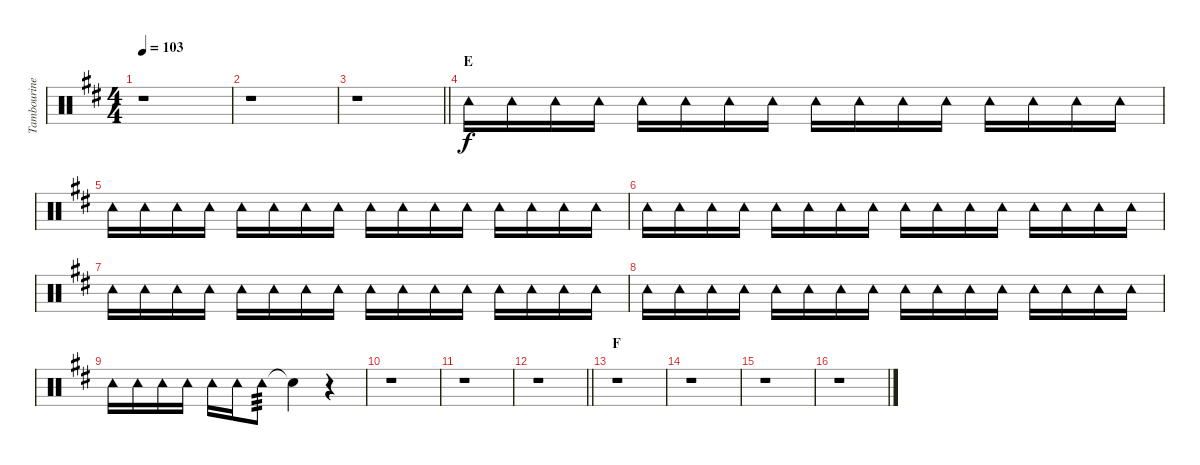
\track ("Tambourine" "Tambourine") {instrument percussion}
\staff {score}
\articulation defaults
\ts (4 4)
\tempo 103
\clef neutral
\ks d
r.1{dy f} |
r.1 |
\barLineRight lightlight
r.1 |
\section ("" "E")
"Tambourine (hit)".16 "Tambourine (hit)".16 "Tambourine (hit)".16 "Tambourine (hit)".16 "Tambourine (hit)".16 "Tambourine (hit)".16 "Tambourine (hit)".16 "Tambourine (hit)".16 "Tambourine (hit)".16 "Tambourine (hit)".16 "Tambourine (hit)".16 "Tambourine (hit)".16 "Tambourine (hit)".16 "Tambourine (hit)".16 "Tambourine (hit)".16 "Tambourine (hit)".16 |
"Tambourine (hit)".16 "Tambourine (hit)".16 "Tambourine (hit)".16 "Tambourine (hit)".16 "Tambourine (hit)".16 "Tambourine (hit)".16 "Tambourine (hit)".16 "Tambourine (hit)".16 "Tambourine (hit)".16 "Tambourine (hit)".16 "Tambourine (hit)".16 "Tambourine (hit)".16 "Tambourine (hit)".16 "Tambourine (hit)".16 "Tambourine (hit)".16 "Tambourine (hit)".16 |
"Tambourine (hit)".16 "Tambourine (hit)".16 "Tambourine (hit)".16 "Tambourine (hit)".16 "Tambourine (hit)".16 "Tambourine (hit)".16 "Tambourine (hit)".16 "Tambourine (hit)".16 "Tambourine (hit)".16 "Tambourine (hit)".16 "Tambourine (hit)".16 "Tambourine (hit)".16 "Tambourine (hit)".16 "Tambourine (hit)".16 "Tambourine (hit)".16 "Tambourine (hit)".16 |
"Tambourine (hit)".16 "Tambourine (hit)".16 "Tambourine (hit)".16 "Tambourine (hit)".16 "Tambourine (hit)".16 "Tambourine (hit)".16 "Tambourine (hit)".16 "Tambourine (hit)".16 "Tambourine (hit)".16 "Tambourine (hit)".16 "Tambourine (hit)".16 "Tambourine (hit)".16 "Tambourine (hit)".16 "Tambourine (hit)".16 "Tambourine (hit)".16 "Tambourine (hit)".16 |
"Tambourine (hit)".16 "Tambourine (hit)".16 "Tambourine (hit)".16 "Tambourine (hit)".16 "Tambourine (hit)".16 "Tambourine (hit)".16 "Tambourine (hit)".16 "Tambourine (hit)".16 "Tambourine (hit)".16 "Tambourine (hit)".16 "Tambourine (hit)".16 "Tambourine (hit)".16 "Tambourine (hit)".16 "Tambourine (hit)".16 "Tambourine (hit)".16 "Tambourine (hit)".16 |
"Tambourine (hit)".16 "Tambourine (hit)".16 "Tambourine (hit)".16 "Tambourine (hit)".16 "Tambourine (hit)".16 "Tambourine (hit)".16 "Tambourine (hit)".8{tp 3} "Snare (hit)"{t}.4 r.4 |
r.1 |
r.1 |
\barLineRight lightlight
r.1 |
\section ("" "F")
r.1 |
r.1 |
r.1 |
r.1
